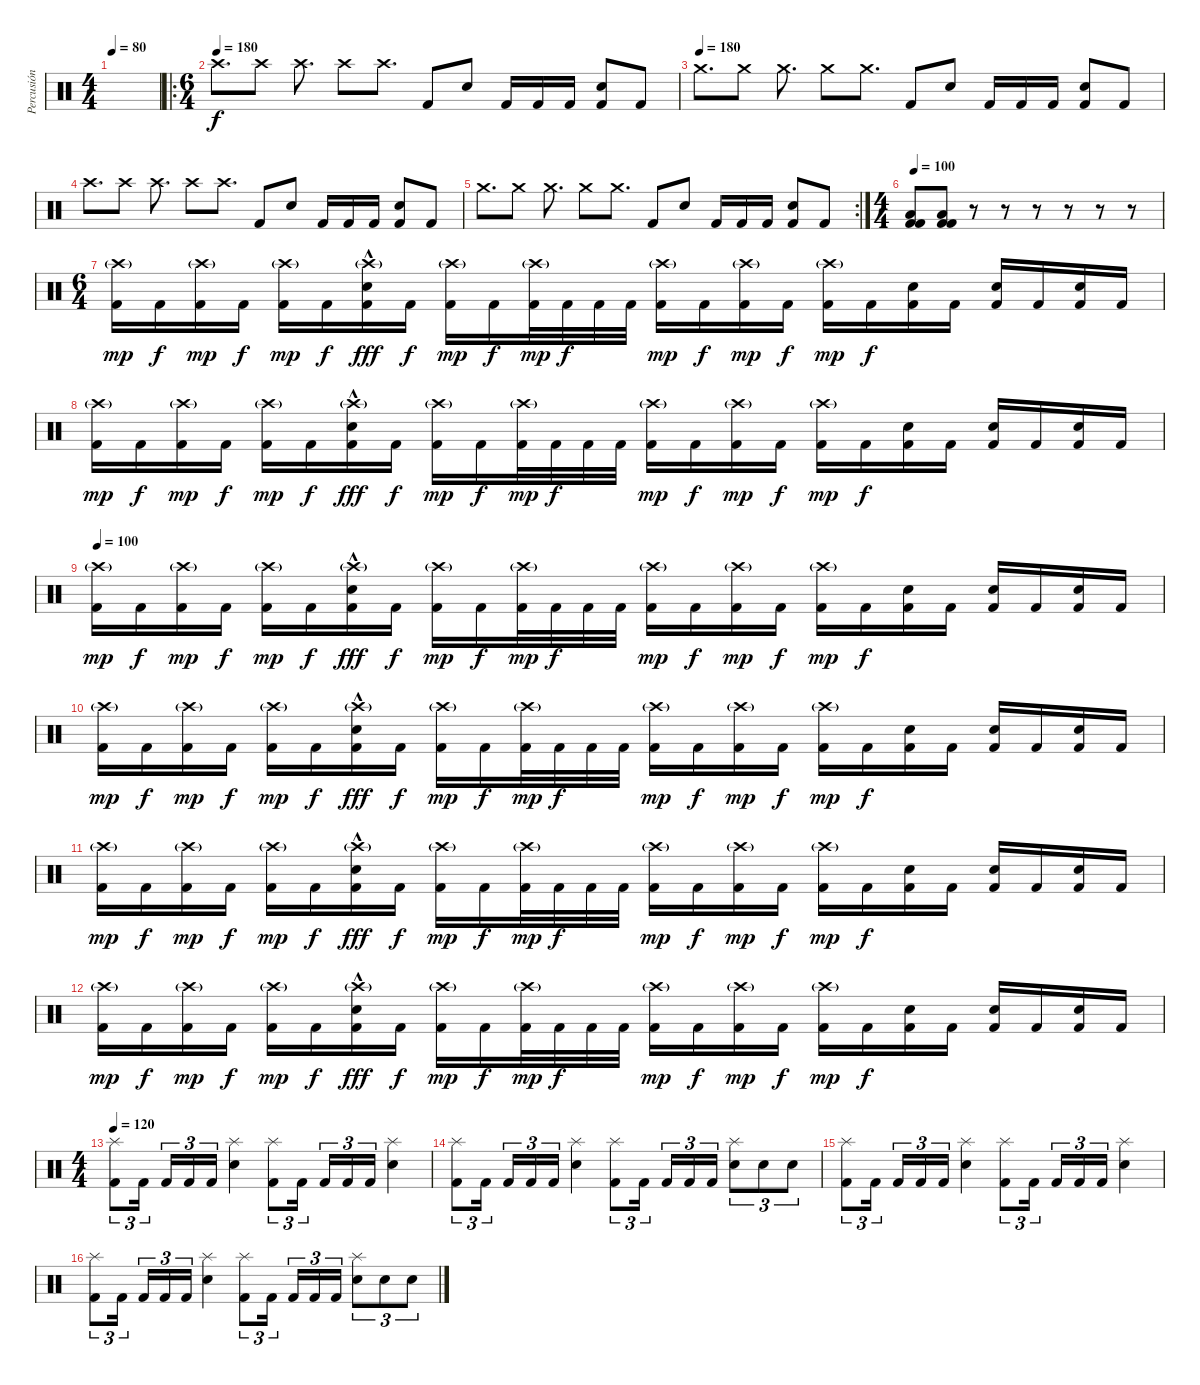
\track ("Percusión" "Percusión") {instrument percussion}
\staff {score}
\articulation defaults
\ts (4 4)
\tempo 80
\clef neutral
\ks c
|
\ro
\ts (6 4)
\tempo (180)
"Crash high (hit)".8{d} "Crash high (hit)".8 "Crash high (hit)".8{d} "Crash high (hit)".8 "Crash high (hit)".8{d} "Kick (hit) 2".8 "Electric Snare (hit)".8 "Kick (hit) 2".16 "Kick (hit) 2".16 "Kick (hit) 2".16 ("Electric Snare (hit)" "Kick (hit) 2").8 "Kick (hit) 2".8 |
\tempo (180)
"Crash medium (hit)".8{d} "Crash medium (hit)".8 "Crash medium (hit)".8{d} "Crash medium (hit)".8 "Crash medium (hit)".8{d} "Kick (hit) 2".8 "Electric Snare (hit)".8 "Kick (hit) 2".16 "Kick (hit) 2".16 "Kick (hit) 2".16 ("Electric Snare (hit)" "Kick (hit) 2").8 "Kick (hit) 2".8 |
"Crash high (hit)".8{d} "Crash high (hit)".8 "Crash high (hit)".8{d} "Crash high (hit)".8 "Crash high (hit)".8{d} "Kick (hit) 2".8 "Electric Snare (hit)".8 "Kick (hit) 2".16 "Kick (hit) 2".16 "Kick (hit) 2".16 ("Electric Snare (hit)" "Kick (hit) 2").8 "Kick (hit) 2".8 |
\rc 2 "Crash medium (hit)".8{d} "Crash medium (hit)".8 "Crash medium (hit)".8{d} "Crash medium (hit)".8 "Crash medium (hit)".8{d} "Kick (hit) 2".8 "Electric Snare (hit)".8 "Kick (hit) 2".16 "Kick (hit) 2".16 "Kick (hit) 2".16
("Electric Snare (hit)" "Kick (hit) 2").8 "Kick (hit) 2".8 |
\ts (4 4)
\tempo 100
("Low Floor Tom (hit)" "Kick (hit) 2" "Kick (hit) 2").8 ("Low Floor Tom (hit)" "Kick (hit) 2" "Kick (hit) 2").8 r.8 r.8 r.8 r.8 r.8 r.8 |
\ts (6 4)
("Crash high (hit)"{g} "Kick (hit) 2").16{dy mp} "Kick (hit) 2".16{dy f} ("Crash high (hit)"{g} "Kick (hit) 2").16{dy mp} "Kick (hit) 2".16{dy f} ("Crash high (hit)"{g} "Kick (hit) 2").16{dy mp} "Kick (hit) 2".16{dy f} ("Crash high (hit)"{g} "Electric Snare (hit)"{hac} "Kick (hit) 2").16{dy fff} "Kick (hit) 2".16{dy f} ("Crash high (hit)"{g} "Kick (hit) 2").16{dy mp} "Kick (hit) 2".16{dy f} ("Crash high (hit)"{g} "Kick (hit) 2").32{dy mp} "Kick (hit) 2".32{dy f} "Kick (hit) 2".32 "Kick (hit) 2".32 ("Crash high (hit)"{g} "Kick (hit) 2").16{dy mp} "Kick (hit) 2".16{dy f} ("Crash high (hit)"{g} "Kick (hit) 2").16{dy mp} "Kick (hit) 2".16{dy f} ("Crash high (hit)"{g} "Kick (hit) 2").16{dy mp} "Kick (hit) 2".16{dy f} ("Electric Snare (hit)" "Kick (hit) 2").16 "Kick (hit) 2".16 ("Electric Snare (hit)" "Kick (hit) 2").16 "Kick (hit) 2".16 ("Electric Snare (hit)" "Kick (hit) 2").16 "Kick (hit) 2".16 |
("Crash high (hit)"{g} "Kick (hit) 2").16{dy mp} "Kick (hit) 2".16{dy f} ("Crash high (hit)"{g} "Kick (hit) 2").16{dy mp} "Kick (hit) 2".16{dy f} ("Crash high (hit)"{g} "Kick (hit) 2").16{dy mp} "Kick (hit) 2".16{dy f} ("Crash high (hit)"{g} "Electric Snare (hit)"{hac} "Kick (hit) 2").16{dy fff} "Kick (hit) 2".16{dy f} ("Crash high (hit)"{g} "Kick (hit) 2").16{dy mp} "Kick (hit) 2".16{dy f} ("Crash high (hit)"{g} "Kick (hit) 2").32{dy mp} "Kick (hit) 2".32{dy f} "Kick (hit) 2".32 "Kick (hit) 2".32 ("Crash high (hit)"{g} "Kick (hit) 2").16{dy mp} "Kick (hit) 2".16{dy f} ("Crash high (hit)"{g} "Kick (hit) 2").16{dy mp} "Kick (hit) 2".16{dy f} ("Crash high (hit)"{g} "Kick (hit) 2").16{dy mp} "Kick (hit) 2".16{dy f} ("Electric Snare (hit)" "Kick (hit) 2").16 "Kick (hit) 2".16 ("Electric Snare (hit)" "Kick (hit) 2").16 "Kick (hit) 2".16 ("Electric Snare (hit)" "Kick (hit) 2").16 "Kick (hit) 2".16 |
\tempo 100
("Crash high (hit)"{g} "Kick (hit) 2").16{dy mp} "Kick (hit) 2".16{dy f} ("Crash high (hit)"{g} "Kick (hit) 2").16{dy mp} "Kick (hit) 2".16{dy f} ("Crash high (hit)"{g} "Kick (hit) 2").16{dy mp} "Kick (hit) 2".16{dy f} ("Crash high (hit)"{g} "Electric Snare (hit)"{hac} "Kick (hit) 2").16{dy fff} "Kick (hit) 2".16{dy f} ("Crash high (hit)"{g} "Kick (hit) 2").16{dy mp} "Kick (hit) 2".16{dy f} ("Crash high (hit)"{g} "Kick (hit) 2").32{dy mp} "Kick (hit) 2".32{dy f} "Kick (hit) 2".32 "Kick (hit) 2".32 ("Crash high (hit)"{g} "Kick (hit) 2").16{dy mp} "Kick (hit) 2".16{dy f} ("Crash high (hit)"{g} "Kick (hit) 2").16{dy mp} "Kick (hit) 2".16{dy f} ("Crash high (hit)"{g} "Kick (hit) 2").16{dy mp} "Kick (hit) 2".16{dy f} ("Electric Snare (hit)" "Kick (hit) 2").16 "Kick (hit) 2".16 ("Electric Snare (hit)" "Kick (hit) 2").16 "Kick (hit) 2".16 ("Electric Snare (hit)" "Kick (hit) 2").16 "Kick (hit) 2".16 |
("Crash high (hit)"{g} "Kick (hit) 2").16{dy mp} "Kick (hit) 2".16{dy f} ("Crash high (hit)"{g} "Kick (hit) 2").16{dy mp} "Kick (hit) 2".16{dy f} ("Crash high (hit)"{g} "Kick (hit) 2").16{dy mp} "Kick (hit) 2".16{dy f} ("Crash high (hit)"{g} "Electric Snare (hit)"{hac} "Kick (hit) 2").16{dy fff} "Kick (hit) 2".16{dy f} ("Crash high (hit)"{g} "Kick (hit) 2").16{dy mp} "Kick (hit) 2".16{dy f} ("Crash high (hit)"{g} "Kick (hit) 2").32{dy mp} "Kick (hit) 2".32{dy f} "Kick (hit) 2".32 "Kick (hit) 2".32 ("Crash high (hit)"{g} "Kick (hit) 2").16{dy mp} "Kick (hit) 2".16{dy f} ("Crash high (hit)"{g} "Kick (hit) 2").16{dy mp} "Kick (hit) 2".16{dy f} ("Crash high (hit)"{g} "Kick (hit) 2").16{dy mp} "Kick (hit) 2".16{dy f} ("Electric Snare (hit)" "Kick (hit) 2").16 "Kick (hit) 2".16 ("Electric Snare (hit)" "Kick (hit) 2").16 "Kick (hit) 2".16 ("Electric Snare (hit)" "Kick (hit) 2").16 "Kick (hit) 2".16 |
("Crash high (hit)"{g} "Kick (hit) 2").16{dy mp} "Kick (hit) 2".16{dy f} ("Crash high (hit)"{g} "Kick (hit) 2").16{dy mp} "Kick (hit) 2".16{dy f} ("Crash high (hit)"{g} "Kick (hit) 2").16{dy mp} "Kick (hit) 2".16{dy f} ("Crash high (hit)"{g} "Electric Snare (hit)"{hac} "Kick (hit) 2").16{dy fff} "Kick (hit) 2".16{dy f} ("Crash high (hit)"{g} "Kick (hit) 2").16{dy mp} "Kick (hit) 2".16{dy f} ("Crash high (hit)"{g} "Kick (hit) 2").32{dy mp} "Kick (hit) 2".32{dy f} "Kick (hit) 2".32 "Kick (hit) 2".32 ("Crash high (hit)"{g} "Kick (hit) 2").16{dy mp} "Kick (hit) 2".16{dy f} ("Crash high (hit)"{g} "Kick (hit) 2").16{dy mp} "Kick (hit) 2".16{dy f} ("Crash high (hit)"{g} "Kick (hit) 2").16{dy mp} "Kick (hit) 2".16{dy f} ("Electric Snare (hit)" "Kick (hit) 2").16 "Kick (hit) 2".16 ("Electric Snare (hit)" "Kick (hit) 2").16 "Kick (hit) 2".16 ("Electric Snare (hit)" "Kick (hit) 2").16 "Kick (hit) 2".16 |
("Crash high (hit)"{g} "Kick (hit) 2").16{dy mp} "Kick (hit) 2".16{dy f} ("Crash high (hit)"{g} "Kick (hit) 2").16{dy mp} "Kick (hit) 2".16{dy f} ("Crash high (hit)"{g} "Kick (hit) 2").16{dy mp} "Kick (hit) 2".16{dy f} ("Crash high (hit)"{g} "Electric Snare (hit)"{hac} "Kick (hit) 2").16{dy fff} "Kick (hit) 2".16{dy f} ("Crash high (hit)"{g} "Kick (hit) 2").16{dy mp} "Kick (hit) 2".16{dy f} ("Crash high (hit)"{g} "Kick (hit) 2").32{dy mp} "Kick (hit) 2".32{dy f} "Kick (hit) 2".32 "Kick (hit) 2".32 ("Crash high (hit)"{g} "Kick (hit) 2").16{dy mp} "Kick (hit) 2".16{dy f} ("Crash high (hit)"{g} "Kick (hit) 2").16{dy mp} "Kick (hit) 2".16{dy f} ("Crash high (hit)"{g} "Kick (hit) 2").16{dy mp} "Kick (hit) 2".16{dy f} ("Electric Snare (hit)" "Kick (hit) 2").16 "Kick (hit) 2".16 ("Electric Snare (hit)" "Kick (hit) 2").16 "Kick (hit) 2".16 ("Electric Snare (hit)" "Kick (hit) 2").16 "Kick (hit) 2".16 |
\ts (4 4)
\tempo 120
("Splash (hit)" "Kick (hit) 2").8{tu (3 2)} "Kick (hit) 2".16{tu (3 2) beam splitsecondary} "Kick (hit) 2".16{tu (3 2)} "Kick (hit) 2".16{tu (3 2)} "Kick (hit) 2".16{tu (3 2)} ("Splash (hit)" "Electric Snare (hit)").4 ("Splash (hit)" "Kick (hit) 2").8{tu (3 2)} "Kick (hit) 2".16{tu (3 2) beam splitsecondary} "Kick (hit) 2".16{tu (3 2)} "Kick (hit) 2".16{tu (3 2)} "Kick (hit) 2".16{tu (3 2)} ("Splash (hit)" "Electric Snare (hit)").4 |
("Splash (hit)" "Kick (hit) 2").8{tu (3 2)} "Kick (hit) 2".16{tu (3 2) beam splitsecondary} "Kick (hit) 2".16{tu (3 2)} "Kick (hit) 2".16{tu (3 2)} "Kick (hit) 2".16{tu (3 2)} ("Splash (hit)" "Electric Snare (hit)").4 ("Splash (hit)" "Kick (hit) 2").8{tu (3 2)} "Kick (hit) 2".16{tu (3 2) beam splitsecondary} "Kick (hit) 2".16{tu (3 2)} "Kick (hit) 2".16{tu (3 2)} "Kick (hit) 2".16{tu (3 2)} ("Splash (hit)" "Electric Snare (hit)").8{tu (3 2)} "Electric Snare (hit)".8{tu (3 2)} "Electric Snare (hit)".8{tu (3 2)} |
("Splash (hit)" "Kick (hit) 2").8{tu (3 2)} "Kick (hit) 2".16{tu (3 2) beam splitsecondary} "Kick (hit) 2".16{tu (3 2)} "Kick (hit) 2".16{tu (3 2)} "Kick (hit) 2".16{tu (3 2)} ("Splash (hit)" "Electric Snare (hit)").4 ("Splash (hit)" "Kick (hit) 2").8{tu (3 2)} "Kick (hit) 2".16{tu (3 2) beam splitsecondary} "Kick (hit) 2".16{tu (3 2)} "Kick (hit) 2".16{tu (3 2)} "Kick (hit) 2".16{tu (3 2)} ("Splash (hit)" "Electric Snare (hit)").4 |
("Splash (hit)" "Kick (hit) 2").8{tu (3 2)} "Kick (hit) 2".16{tu (3 2) beam splitsecondary} "Kick (hit) 2".16{tu (3 2)} "Kick (hit) 2".16{tu (3 2)} "Kick (hit) 2".16{tu (3 2)} ("Splash (hit)" "Electric Snare (hit)").4 ("Splash (hit)" "Kick (hit) 2").8{tu (3 2)} "Kick (hit) 2".16{tu (3 2) beam splitsecondary} "Kick (hit) 2".16{tu (3 2)} "Kick (hit) 2".16{tu (3 2)} "Kick (hit) 2".16{tu (3 2)} ("Splash (hit)" "Electric Snare (hit)").8{tu (3 2)} "Electric Snare (hit)".8{tu (3 2)} "Electric Snare (hit)".8{tu (3 2)}
